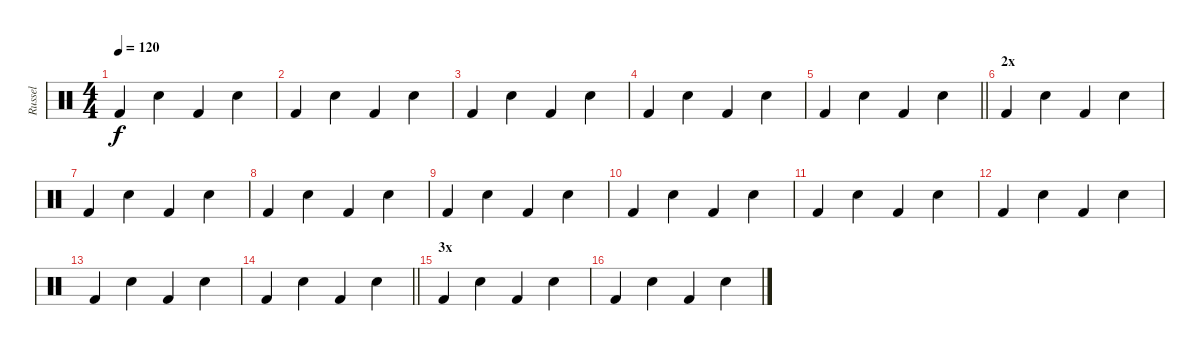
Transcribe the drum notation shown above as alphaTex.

\track ("Russel" "Russel") {instrument percussion}
\staff {score}
\articulation defaults
\ts (4 4)
\tempo 120
\clef neutral
\ks c "Kick (hit) 2".4{dy f} "Hand Clap (hit)".4 "Kick (hit) 2".4 "Hand Clap (hit)".4
|
"Kick (hit) 2".4 "Hand Clap (hit)".4 "Kick (hit) 2".4 "Hand Clap (hit)".4 |
"Kick (hit) 2".4 "Hand Clap (hit)".4 "Kick (hit) 2".4 "Hand Clap (hit)".4 |
"Kick (hit) 2".4 "Hand Clap (hit)".4 "Kick (hit) 2".4 "Hand Clap (hit)".4 |
\barLineRight lightlight "Kick (hit) 2".4 "Hand Clap (hit)".4 "Kick (hit) 2".4 "Hand Clap (hit)".4
|
\section ("" "2х")
"Kick (hit) 2".4 "Hand Clap (hit)".4 "Kick (hit) 2".4 "Hand Clap (hit)".4 |
"Kick (hit) 2".4 "Hand Clap (hit)".4 "Kick (hit) 2".4 "Hand Clap (hit)".4 |
"Kick (hit) 2".4 "Hand Clap (hit)".4 "Kick (hit) 2".4 "Hand Clap (hit)".4 |
"Kick (hit) 2".4 "Hand Clap (hit)".4 "Kick (hit) 2".4 "Hand Clap (hit)".4 |
"Kick (hit) 2".4 "Hand Clap (hit)".4 "Kick (hit) 2".4 "Hand Clap (hit)".4 |
"Kick (hit) 2".4 "Hand Clap (hit)".4 "Kick (hit) 2".4 "Hand Clap (hit)".4 |
"Kick (hit) 2".4 "Hand Clap (hit)".4 "Kick (hit) 2".4 "Hand Clap (hit)".4 |
"Kick (hit) 2".4 "Hand Clap (hit)".4 "Kick (hit) 2".4 "Hand Clap (hit)".4 |
\barLineRight lightlight "Kick (hit) 2".4 "Hand Clap (hit)".4 "Kick (hit) 2".4 "Hand Clap (hit)".4
|
\section ("" "3х")
"Kick (hit) 2".4 "Hand Clap (hit)".4 "Kick (hit) 2".4 "Hand Clap (hit)".4 |
"Kick (hit) 2".4 "Hand Clap (hit)".4 "Kick (hit) 2".4 "Hand Clap (hit)".4
